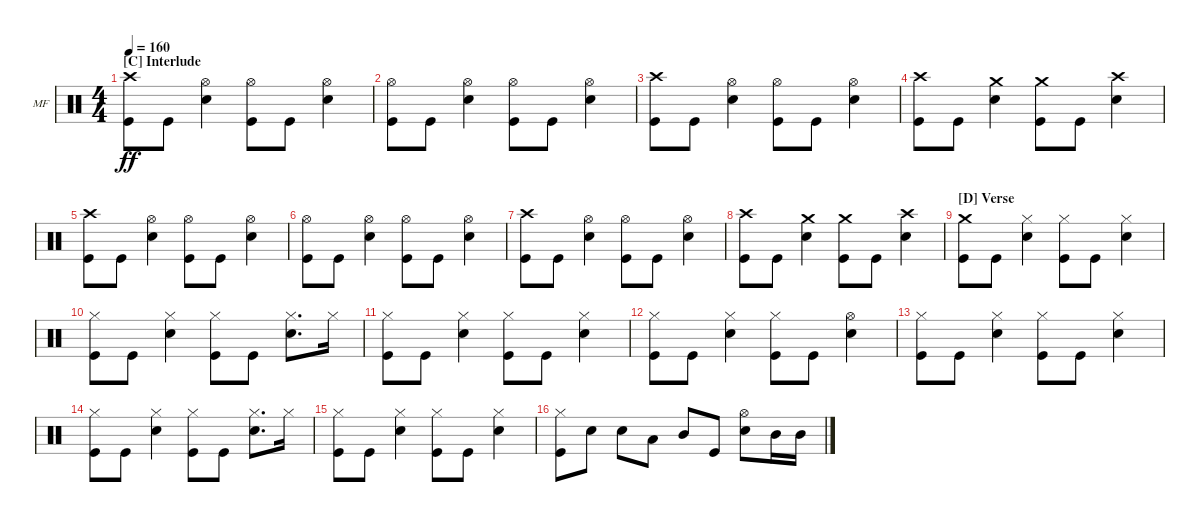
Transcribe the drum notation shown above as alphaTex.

\defaultSystemsLayout 4
\bracketExtendMode groupsimilarinstruments
\firstSystemTrackNameOrientation horizontal
\otherSystemsTrackNameOrientation horizontal
\track ("Mike Felumlee - Drums" "MF") {instrument percussion}
\staff {score}
\articulation defaults
\ts (4 4)
\section ("C" "Interlude")
\tempo 160
\clef neutral
\ks c
("Crash high (hit)" "Kick (hit)").8{dy ff} "Kick (hit)".8 ("Hi-Hat (open)" "Snare (hit) 2").4 ("Hi-Hat (open)" "Kick (hit)").8 "Kick (hit)".8 ("Hi-Hat (open)" "Snare (hit) 2").4 |
("Hi-Hat (open)" "Kick (hit)").8 "Kick (hit)".8 ("Hi-Hat (open)" "Snare (hit) 2").4 ("Hi-Hat (open)" "Kick (hit)").8 "Kick (hit)".8 ("Hi-Hat (open)" "Snare (hit) 2").4 |
("Crash high (hit)" "Kick (hit)").8 "Kick (hit)".8 ("Hi-Hat (open)" "Snare (hit) 2").4 ("Hi-Hat (open)" "Kick (hit)").8 "Kick (hit)".8 ("Hi-Hat (open)" "Snare (hit) 2").4 |
("Crash high (hit)" "Kick (hit)").8 "Kick (hit)".8 ("Snare (hit) 2" "Crash medium (hit)").4 ("Kick (hit)" "Crash medium (hit)").8 "Kick (hit)".8 ("Snare (hit) 2" "Crash high (hit)").4 |
("Crash high (hit)" "Kick (hit)").8 "Kick (hit)".8 ("Hi-Hat (open)" "Snare (hit) 2").4 ("Hi-Hat (open)" "Kick (hit)").8 "Kick (hit)".8 ("Hi-Hat (open)" "Snare (hit) 2").4 |
("Hi-Hat (open)" "Kick (hit)").8 "Kick (hit)".8 ("Hi-Hat (open)" "Snare (hit) 2").4 ("Hi-Hat (open)" "Kick (hit)").8 "Kick (hit)".8 ("Hi-Hat (open)" "Snare (hit) 2").4 |
("Crash high (hit)" "Kick (hit)").8 "Kick (hit)".8 ("Hi-Hat (open)" "Snare (hit) 2").4 ("Hi-Hat (open)" "Kick (hit)").8 "Kick (hit)".8 ("Hi-Hat (open)" "Snare (hit) 2").4 |
("Crash high (hit)" "Kick (hit)").8 "Kick (hit)".8 ("Snare (hit) 2" "Crash medium (hit)").4 ("Kick (hit)" "Crash medium (hit)").8 "Kick (hit)".8 ("Snare (hit) 2" "Crash high (hit)").4 |
\section ("D" "Verse")
("Crash medium (hit)" "Kick (hit)").8 "Kick (hit)".8 ("Snare (hit) 2" "Hi-Hat (closed)").4 ("Kick (hit)" "Hi-Hat (closed)").8 "Kick (hit)".8 ("Snare (hit) 2" "Hi-Hat (closed)").4 |
("Kick (hit)" "Hi-Hat (closed)").8 "Kick (hit)".8 ("Snare (hit) 2" "Hi-Hat (closed)").4 ("Kick (hit)" "Hi-Hat (closed)").8 "Kick (hit)".8 ("Snare (hit) 2" "Hi-Hat (closed)").8{d} "Hi-Hat (closed)".16 |
("Kick (hit)" "Hi-Hat (closed)").8 "Kick (hit)".8 ("Snare (hit) 2" "Hi-Hat (closed)").4 ("Kick (hit)" "Hi-Hat (closed)").8 "Kick (hit)".8 ("Snare (hit) 2" "Hi-Hat (closed)").4 |
("Kick (hit)" "Hi-Hat (closed)").8 "Kick (hit)".8 ("Snare (hit) 2" "Hi-Hat (closed)").4 ("Kick (hit)" "Hi-Hat (closed)").8 "Kick (hit)".8 ("Snare (hit) 2" "Hi-Hat (open)").4 |
("Kick (hit)" "Hi-Hat (closed)").8 "Kick (hit)".8 ("Snare (hit) 2" "Hi-Hat (closed)").4 ("Kick (hit)" "Hi-Hat (closed)").8 "Kick (hit)".8 ("Snare (hit) 2" "Hi-Hat (closed)").4 |
("Kick (hit)" "Hi-Hat (closed)").8 "Kick (hit)".8 ("Snare (hit) 2" "Hi-Hat (closed)").4 ("Kick (hit)" "Hi-Hat (closed)").8 "Kick (hit)".8 ("Snare (hit) 2" "Hi-Hat (closed)").8{d} "Hi-Hat (closed)".16 |
("Kick (hit)" "Hi-Hat (closed)").8 "Kick (hit)".8 ("Snare (hit) 2" "Hi-Hat (closed)").4 ("Kick (hit)" "Hi-Hat (closed)").8 "Kick (hit)".8 ("Snare (hit) 2" "Hi-Hat (closed)").4 |
("Kick (hit)" "Hi-Hat (closed)").8 "Snare (hit) 2".8 "Snare (hit) 2".8 "Low Tom (hit)".8 "Mid Tom (hit)".8 "Kick (hit)".8 ("Snare (hit) 2" "Hi-Hat (open)").8 "Mid Tom (hit)".16 "Mid Tom (hit)".16
